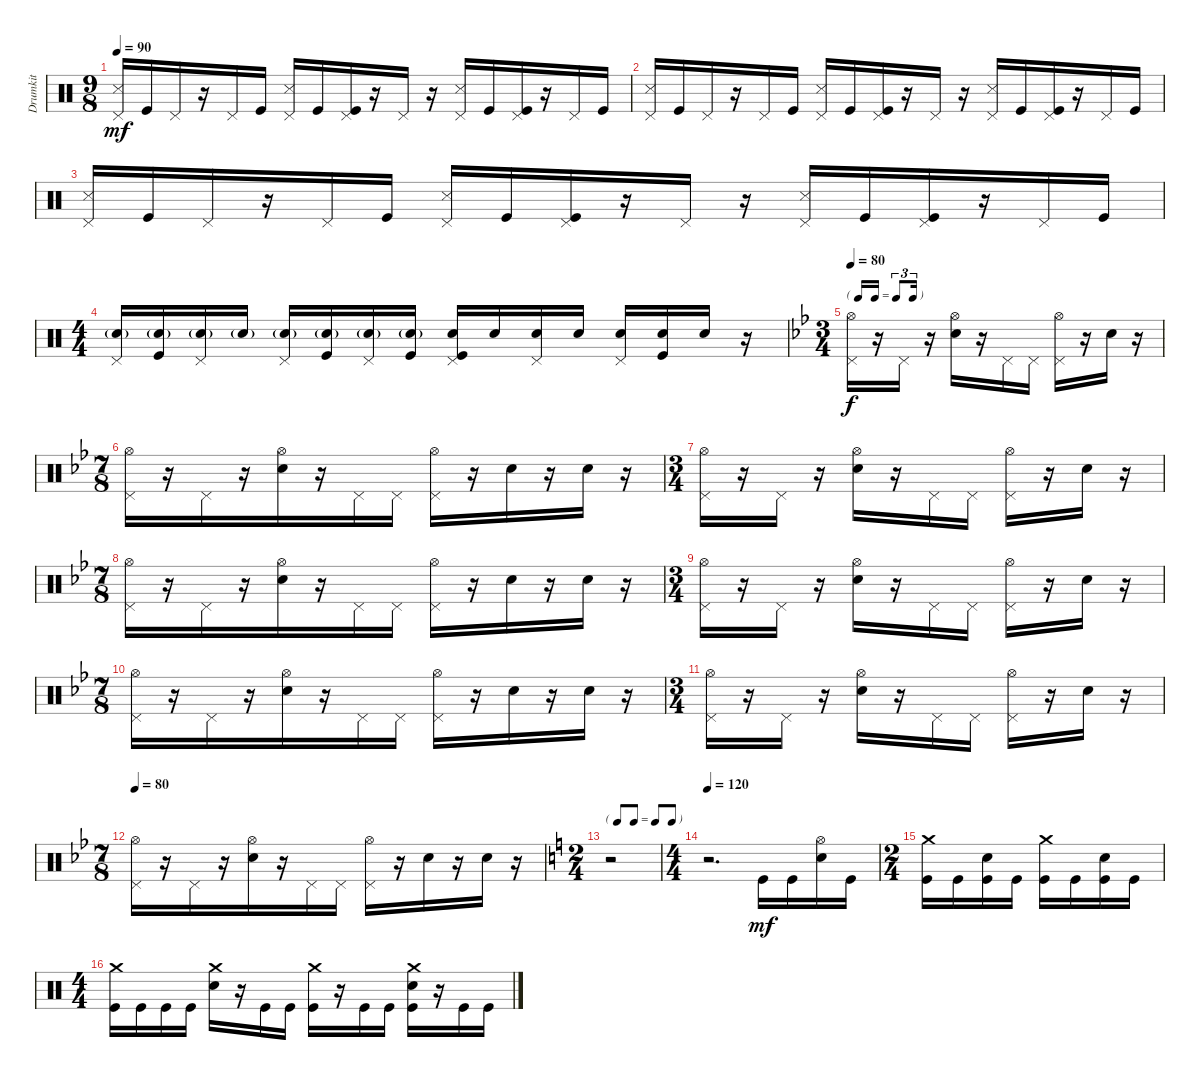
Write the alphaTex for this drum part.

\track ("Drumkit" "Drumkit") {instrument percussion}
\staff {score}
\articulation defaults
\ts (9 8)
\tempo 90
\clef neutral
\ks c
("Snare (side stick) 3" "Pedal Hi-Hat (hit)").16{dy mf} "Kick (hit)".16 "Pedal Hi-Hat (hit)".16 r.16 "Pedal Hi-Hat (hit)".16 "Kick (hit)".16 ("Snare (side stick) 3" "Pedal Hi-Hat (hit)").16 "Kick (hit)".16 ("Kick (hit)" "Pedal Hi-Hat (hit)").16 r.16 "Pedal Hi-Hat (hit)".16 r.16 ("Snare (side stick) 3" "Pedal Hi-Hat (hit)").16 "Kick (hit)".16 ("Kick (hit)" "Pedal Hi-Hat (hit)").16 r.16 "Pedal Hi-Hat (hit)".16 "Kick (hit)".16 |
("Snare (side stick) 3" "Pedal Hi-Hat (hit)").16 "Kick (hit)".16 "Pedal Hi-Hat (hit)".16 r.16 "Pedal Hi-Hat (hit)".16 "Kick (hit)".16 ("Snare (side stick) 3" "Pedal Hi-Hat (hit)").16 "Kick (hit)".16 ("Kick (hit)" "Pedal Hi-Hat (hit)").16 r.16 "Pedal Hi-Hat (hit)".16 r.16 ("Snare (side stick) 3" "Pedal Hi-Hat (hit)").16 "Kick (hit)".16 ("Kick (hit)" "Pedal Hi-Hat (hit)").16 r.16 "Pedal Hi-Hat (hit)".16 "Kick (hit)".16 |
("Snare (side stick) 3" "Pedal Hi-Hat (hit)").16 "Kick (hit)".16 "Pedal Hi-Hat (hit)".16 r.16 "Pedal Hi-Hat (hit)".16 "Kick (hit)".16 ("Snare (side stick) 3" "Pedal Hi-Hat (hit)").16 "Kick (hit)".16 ("Kick (hit)" "Pedal Hi-Hat (hit)").16 r.16 "Pedal Hi-Hat (hit)".16 r.16 ("Snare (side stick) 3" "Pedal Hi-Hat (hit)").16 "Kick (hit)".16 ("Kick (hit)" "Pedal Hi-Hat (hit)").16 r.16 "Pedal Hi-Hat (hit)".16 "Kick (hit)".16 |
\ts (4 4)
("Snare (hit) 2"{g} "Pedal Hi-Hat (hit)").16 ("Kick (hit)" "Snare (hit) 2"{g}).16 ("Pedal Hi-Hat (hit)" "Snare (hit) 2"{g}).16 "Snare (hit) 2"{g}.16 ("Pedal Hi-Hat (hit)" "Snare (hit) 2"{g}).16 ("Kick (hit)" "Snare (hit) 2"{g}).16 ("Snare (hit) 2"{g} "Pedal Hi-Hat (hit)").16 ("Kick (hit)" "Snare (hit) 2"{g}).16 ("Kick (hit)" "Pedal Hi-Hat (hit)" "Snare (hit) 2").16 "Snare (hit) 2".16 ("Pedal Hi-Hat (hit)" "Snare (hit) 2").16 "Snare (hit) 2".16 ("Snare (hit) 2" "Pedal Hi-Hat (hit)").16 ("Kick (hit)" "Snare (hit) 2").16 "Snare (hit) 2".16 r.16 |
\ts (3 4)
\tf triplet16th
\tempo 80
\ks bb
("Pedal Hi-Hat (hit)" "Hi-Hat (open)").16{dy f} r.16 "Pedal Hi-Hat (hit)".16 r.16 ("Hi-Hat (open)" "Snare (hit) 2").16 r.16 "Pedal Hi-Hat (hit)".16 "Pedal Hi-Hat (hit)".16 ("Pedal Hi-Hat (hit)" "Hi-Hat (open)").16 r.16 "Snare (hit) 2".16 r.16 |
\ts (7 8)
("Pedal Hi-Hat (hit)" "Hi-Hat (open)").16 r.16 "Pedal Hi-Hat (hit)".16 r.16 ("Hi-Hat (open)" "Snare (hit) 2").16 r.16 "Pedal Hi-Hat (hit)".16 "Pedal Hi-Hat (hit)".16 ("Pedal Hi-Hat (hit)" "Hi-Hat (open)").16 r.16 "Snare (hit) 2".16 r.16 "Snare (hit) 2".16 r.16 |
\ts (3 4)
("Pedal Hi-Hat (hit)" "Hi-Hat (open)").16 r.16 "Pedal Hi-Hat (hit)".16 r.16 ("Hi-Hat (open)" "Snare (hit) 2").16 r.16 "Pedal Hi-Hat (hit)".16 "Pedal Hi-Hat (hit)".16 ("Pedal Hi-Hat (hit)" "Hi-Hat (open)").16 r.16 "Snare (hit) 2".16 r.16 |
\ts (7 8)
("Pedal Hi-Hat (hit)" "Hi-Hat (open)").16 r.16 "Pedal Hi-Hat (hit)".16 r.16 ("Hi-Hat (open)" "Snare (hit) 2").16 r.16 "Pedal Hi-Hat (hit)".16 "Pedal Hi-Hat (hit)".16 ("Pedal Hi-Hat (hit)" "Hi-Hat (open)").16 r.16 "Snare (hit) 2".16 r.16 "Snare (hit) 2".16 r.16 |
\ts (3 4)
("Pedal Hi-Hat (hit)" "Hi-Hat (open)").16 r.16 "Pedal Hi-Hat (hit)".16 r.16 ("Hi-Hat (open)" "Snare (hit) 2").16 r.16 "Pedal Hi-Hat (hit)".16 "Pedal Hi-Hat (hit)".16 ("Pedal Hi-Hat (hit)" "Hi-Hat (open)").16 r.16 "Snare (hit) 2".16 r.16 |
\ts (7 8)
("Pedal Hi-Hat (hit)" "Hi-Hat (open)").16 r.16 "Pedal Hi-Hat (hit)".16 r.16 ("Hi-Hat (open)" "Snare (hit) 2").16 r.16 "Pedal Hi-Hat (hit)".16 "Pedal Hi-Hat (hit)".16 ("Pedal Hi-Hat (hit)" "Hi-Hat (open)").16 r.16 "Snare (hit) 2".16 r.16 "Snare (hit) 2".16 r.16 |
\ts (3 4)
("Pedal Hi-Hat (hit)" "Hi-Hat (open)").16 r.16 "Pedal Hi-Hat (hit)".16 r.16 ("Hi-Hat (open)" "Snare (hit) 2").16 r.16 "Pedal Hi-Hat (hit)".16 "Pedal Hi-Hat (hit)".16 ("Pedal Hi-Hat (hit)" "Hi-Hat (open)").16 r.16 "Snare (hit) 2".16 r.16 |
\ts (7 8)
\tempo 80
("Pedal Hi-Hat (hit)" "Hi-Hat (open)").16 r.16 "Pedal Hi-Hat (hit)".16 r.16 ("Hi-Hat (open)" "Snare (hit) 2").16 r.16 "Pedal Hi-Hat (hit)".16 "Pedal Hi-Hat (hit)".16 ("Pedal Hi-Hat (hit)" "Hi-Hat (open)").16 r.16 "Snare (hit) 2".16 r.16 "Snare (hit) 2".16 r.16 |
\ts (2 4)
\tf none
\ks c
r.2 |
\ts (4 4)
\tempo 120
r.2{d} "Kick (hit)".16{dy mf} "Kick (hit)".16 ("Snare (hit) 2" "Hi-Hat (open)").16 "Kick (hit)".16 |
\ts (2 4)
("Kick (hit)" "Crash medium (hit)").16 "Kick (hit)".16 ("Kick (hit)" "Snare (hit) 2").16 "Kick (hit)".16 ("Kick (hit)" "Crash medium (hit)").16 "Kick (hit)".16 ("Kick (hit)" "Snare (hit) 2").16 "Kick (hit)".16 |
\ts (4 4)
("Kick (hit)" "Crash medium (hit)").16 "Kick (hit)".16 "Kick (hit)".16 "Kick (hit)".16 ("Snare (hit) 2" "Crash medium (hit)").16 r.16 "Kick (hit)".16 "Kick (hit)".16 ("Crash medium (hit)" "Kick (hit)").16 r.16 "Kick (hit)".16 "Kick (hit)".16 ("Crash medium (hit)" "Kick (hit)" "Snare (hit) 2").16 r.16 "Kick (hit)".16 "Kick (hit)".16
